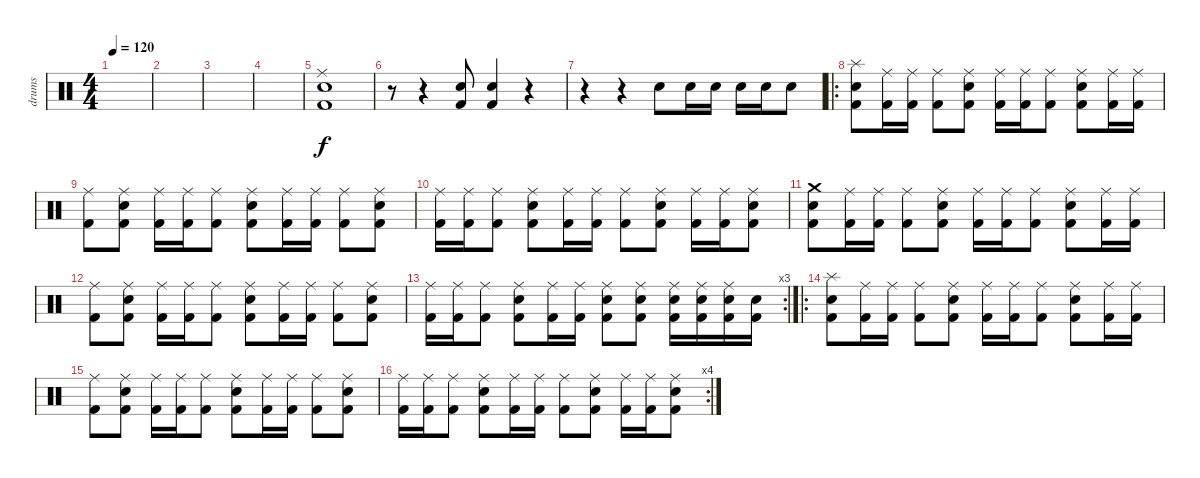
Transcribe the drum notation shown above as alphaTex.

\track ("drums" "drums") {instrument percussion}
\staff {score}
\articulation defaults
\ts (4 4)
\tempo 120
\clef neutral
\ks c
|
|
|
|
("Kick (hit) 2" "Snare (hit) 2" "Ride (middle)").1 |
r.8 r.4 ("Snare (hit) 2" "Kick (hit) 2").8 ("Snare (hit) 2" "Kick (hit) 2").4 r.4 |
r.4 r.4 "Snare (hit) 2".8 "Snare (hit) 2".16 "Snare (hit) 2".16 "Snare (hit) 2".16 "Snare (hit) 2".16 "Snare (hit) 2".8 |
\ro
("Kick (hit) 2" "Snare (hit) 2" "Splash (hit)").8 ("Kick (hit) 2" "Ride (middle)").16 ("Kick (hit) 2" "Ride (middle)").16 ("Kick (hit) 2" "Ride (middle)").8 ("Kick (hit) 2" "Snare (hit) 2" "Ride (middle)").8 ("Kick (hit) 2" "Ride (middle)").16 ("Kick (hit) 2" "Ride (middle)").16 ("Kick (hit) 2" "Ride (middle)").8 ("Kick (hit) 2" "Snare (hit) 2" "Ride (middle)").8 ("Kick (hit) 2" "Ride (middle)").16 ("Kick (hit) 2" "Ride (middle)").16 |
("Kick (hit) 2" "Ride (middle)").8 ("Kick (hit) 2" "Snare (hit) 2" "Ride (middle)").8 ("Kick (hit) 2" "Ride (middle)").16 ("Kick (hit) 2" "Ride (middle)").16 ("Kick (hit) 2" "Ride (middle)").8 ("Kick (hit) 2" "Snare (hit) 2" "Ride (middle)").8 ("Kick (hit) 2" "Ride (middle)").16 ("Kick (hit) 2" "Ride (middle)").16 ("Kick (hit) 2" "Ride (middle)").8 ("Kick (hit) 2" "Snare (hit) 2" "Ride (middle)").8 |
("Kick (hit) 2" "Ride (middle)").16 ("Kick (hit) 2" "Ride (middle)").16 ("Kick (hit) 2" "Ride (middle)").8 ("Kick (hit) 2" "Snare (hit) 2" "Ride (middle)").8 ("Kick (hit) 2" "Ride (middle)").16 ("Kick (hit) 2" "Ride (middle)").16 ("Kick (hit) 2" "Ride (middle)").8 ("Kick (hit) 2" "Snare (hit) 2" "Ride (middle)").8 ("Kick (hit) 2" "Ride (middle)").16 ("Kick (hit) 2" "Ride (middle)").16 ("Kick (hit) 2" "Snare (hit) 2" "Ride (middle)").8 |
("Kick (hit) 2" "Snare (hit) 2" "Crash medium (hit)").8 ("Kick (hit) 2" "Ride (middle)").16 ("Kick (hit) 2" "Ride (middle)").16 ("Kick (hit) 2" "Ride (middle)").8 ("Kick (hit) 2" "Snare (hit) 2" "Ride (middle)").8 ("Kick (hit) 2" "Ride (middle)").16 ("Kick (hit) 2" "Ride (middle)").16 ("Kick (hit) 2" "Ride (middle)").8 ("Kick (hit) 2" "Snare (hit) 2" "Ride (middle)").8 ("Kick (hit) 2" "Ride (middle)").16 ("Kick (hit) 2" "Ride (middle)").16 |
("Kick (hit) 2" "Ride (middle)").8 ("Kick (hit) 2" "Snare (hit) 2" "Ride (middle)").8 ("Kick (hit) 2" "Ride (middle)").16 ("Kick (hit) 2" "Ride (middle)").16 ("Kick (hit) 2" "Ride (middle)").8 ("Kick (hit) 2" "Snare (hit) 2" "Ride (middle)").8 ("Kick (hit) 2" "Ride (middle)").16 ("Kick (hit) 2" "Ride (middle)").16 ("Kick (hit) 2" "Ride (middle)").8 ("Kick (hit) 2" "Snare (hit) 2" "Ride (middle)").8 |
\rc 3
("Kick (hit) 2" "Ride (middle)").16 ("Kick (hit) 2" "Ride (middle)").16 ("Kick (hit) 2" "Ride (middle)").8 ("Kick (hit) 2" "Snare (hit) 2" "Ride (middle)").8 ("Kick (hit) 2" "Ride (middle)").16 ("Kick (hit) 2" "Ride (middle)").16 ("Kick (hit) 2" "Snare (hit) 2" "Ride (middle)").8 ("Kick (hit) 2" "Snare (hit) 2" "Ride (middle)").8 ("Kick (hit) 2" "Snare (hit) 2" "Ride (middle)").16 ("Kick (hit) 2" "Snare (hit) 2" "Ride (middle)").16 ("Kick (hit) 2" "Snare (hit) 2" "Ride (middle)").16 ("Kick (hit) 2" "Snare (hit) 2").16 |
\ro
("Kick (hit) 2" "Snare (hit) 2" "Splash (hit)").8 ("Kick (hit) 2" "Ride (middle)").16 ("Kick (hit) 2" "Ride (middle)").16 ("Kick (hit) 2" "Ride (middle)").8 ("Kick (hit) 2" "Snare (hit) 2" "Ride (middle)").8 ("Kick (hit) 2" "Ride (middle)").16 ("Kick (hit) 2" "Ride (middle)").16 ("Kick (hit) 2" "Ride (middle)").8 ("Kick (hit) 2" "Snare (hit) 2" "Ride (middle)").8 ("Kick (hit) 2" "Ride (middle)").16 ("Kick (hit) 2" "Ride (middle)").16 |
("Kick (hit) 2" "Ride (middle)").8 ("Kick (hit) 2" "Snare (hit) 2" "Ride (middle)").8 ("Kick (hit) 2" "Ride (middle)").16 ("Kick (hit) 2" "Ride (middle)").16 ("Kick (hit) 2" "Ride (middle)").8 ("Kick (hit) 2" "Snare (hit) 2" "Ride (middle)").8 ("Kick (hit) 2" "Ride (middle)").16 ("Kick (hit) 2" "Ride (middle)").16 ("Kick (hit) 2" "Ride (middle)").8 ("Kick (hit) 2" "Snare (hit) 2" "Ride (middle)").8 |
\rc 4
("Kick (hit) 2" "Ride (middle)").16 ("Kick (hit) 2" "Ride (middle)").16 ("Kick (hit) 2" "Ride (middle)").8 ("Kick (hit) 2" "Snare (hit) 2" "Ride (middle)").8 ("Kick (hit) 2" "Ride (middle)").16 ("Kick (hit) 2" "Ride (middle)").16 ("Kick (hit) 2" "Ride (middle)").8 ("Kick (hit) 2" "Snare (hit) 2" "Ride (middle)").8 ("Kick (hit) 2" "Ride (middle)").16 ("Kick (hit) 2" "Ride (middle)").16 ("Kick (hit) 2" "Snare (hit) 2" "Ride (middle)").8
